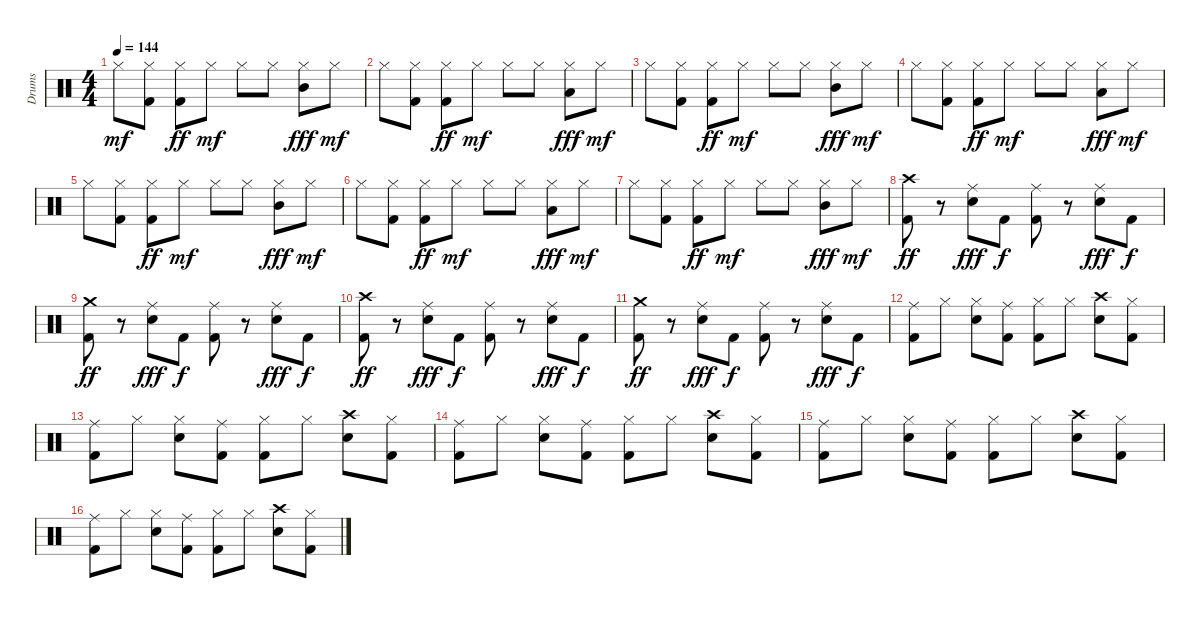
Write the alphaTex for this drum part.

\track ("Drums" "Drums") {instrument percussion}
\staff {score}
\articulation defaults
\ts (4 4)
\tempo 144
\clef neutral
\ks c "Hi-Hat (closed)".8{dy mf}
("Hi-Hat (closed)" "Kick (hit) 2").8 ("Hi-Hat (closed)" "Kick (hit) 2").8{dy ff} "Hi-Hat (closed)".8{dy mf} "Hi-Hat (closed)".8 "Hi-Hat (closed)".8 ("Hi-Hat (closed)" "Mid Tom (hit)").8{dy fff} "Hi-Hat (closed)".8{dy mf} |
"Hi-Hat (closed)".8 ("Hi-Hat (closed)" "Kick (hit) 2").8 ("Hi-Hat (closed)" "Kick (hit) 2").8{dy ff} "Hi-Hat (closed)".8{dy mf} "Hi-Hat (closed)".8 "Hi-Hat (closed)".8 ("Hi-Hat (closed)" "Low Tom (hit)").8{dy fff} "Hi-Hat (closed)".8{dy mf} |
"Hi-Hat (closed)".8 ("Hi-Hat (closed)" "Kick (hit) 2").8 ("Hi-Hat (closed)" "Kick (hit) 2").8{dy ff} "Hi-Hat (closed)".8{dy mf} "Hi-Hat (closed)".8 "Hi-Hat (closed)".8 ("Hi-Hat (closed)" "Mid Tom (hit)").8{dy fff} "Hi-Hat (closed)".8{dy mf} |
"Hi-Hat (closed)".8 ("Hi-Hat (closed)" "Kick (hit) 2").8 ("Hi-Hat (closed)" "Kick (hit) 2").8{dy ff} "Hi-Hat (closed)".8{dy mf} "Hi-Hat (closed)".8 "Hi-Hat (closed)".8 ("Hi-Hat (closed)" "Low Tom (hit)").8{dy fff} "Hi-Hat (closed)".8{dy mf} |
"Hi-Hat (closed)".8 ("Hi-Hat (closed)" "Kick (hit) 2").8 ("Hi-Hat (closed)" "Kick (hit) 2").8{dy ff} "Hi-Hat (closed)".8{dy mf} "Hi-Hat (closed)".8 "Hi-Hat (closed)".8 ("Hi-Hat (closed)" "Mid Tom (hit)").8{dy fff} "Hi-Hat (closed)".8{dy mf} |
"Hi-Hat (closed)".8 ("Hi-Hat (closed)" "Kick (hit) 2").8 ("Hi-Hat (closed)" "Kick (hit) 2").8{dy ff} "Hi-Hat (closed)".8{dy mf} "Hi-Hat (closed)".8 "Hi-Hat (closed)".8 ("Hi-Hat (closed)" "Low Tom (hit)").8{dy fff} "Hi-Hat (closed)".8{dy mf} |
"Hi-Hat (closed)".8 ("Hi-Hat (closed)" "Kick (hit) 2").8 ("Hi-Hat (closed)" "Kick (hit) 2").8{dy ff} "Hi-Hat (closed)".8{dy mf} "Hi-Hat (closed)".8 "Hi-Hat (closed)".8 ("Hi-Hat (closed)" "Mid Tom (hit)").8{dy fff} "Hi-Hat (closed)".8{dy mf} |
("Crash high (hit)" "Kick (hit) 2").8{dy ff} r.8 ("Ride (middle)" "Snare (hit) 2").8{dy fff} "Kick (hit) 2".8{dy f} ("Ride (middle)" "Kick (hit) 2").8 r.8 ("Ride (middle)" "Snare (hit) 2").8{dy fff} "Kick (hit) 2".8{dy f} |
("Crash medium (hit)" "Kick (hit) 2").8{dy ff} r.8 ("Ride (middle)" "Snare (hit) 2").8{dy fff} "Kick (hit) 2".8{dy f} ("Ride (middle)" "Kick (hit) 2").8 r.8 ("Ride (middle)" "Snare (hit) 2").8{dy fff} "Kick (hit) 2".8{dy f} |
("Crash high (hit)" "Kick (hit) 2").8{dy ff} r.8 ("Ride (middle)" "Snare (hit) 2").8{dy fff} "Kick (hit) 2".8{dy f} ("Ride (middle)" "Kick (hit) 2").8 r.8 ("Ride (middle)" "Snare (hit) 2").8{dy fff} "Kick (hit) 2".8{dy f} |
("Crash medium (hit)" "Kick (hit) 2").8{dy ff} r.8 ("Ride (middle)" "Snare (hit) 2").8{dy fff} "Kick (hit) 2".8{dy f} ("Ride (middle)" "Kick (hit) 2").8 r.8 ("Ride (middle)" "Snare (hit) 2").8{dy fff} "Kick (hit) 2".8{dy f} |
("Ride (middle)" "Kick (hit) 2").8 "Hi-Hat (closed)".8 ("Hi-Hat (closed)" "Snare (hit) 2").8 ("Ride (middle)" "Kick (hit) 2").8 ("Hi-Hat (closed)" "Kick (hit) 2").8 "Hi-Hat (closed)".8 ("Crash high (hit)" "Snare (hit) 2").8 ("Hi-Hat (closed)" "Kick (hit) 2").8 |
("Ride (middle)" "Kick (hit) 2").8 "Hi-Hat (closed)".8 ("Hi-Hat (closed)" "Snare (hit) 2").8 ("Ride (middle)" "Kick (hit) 2").8 ("Hi-Hat (closed)" "Kick (hit) 2").8 "Hi-Hat (closed)".8 ("Crash high (hit)" "Snare (hit) 2").8 ("Hi-Hat (closed)" "Kick (hit) 2").8 |
("Ride (middle)" "Kick (hit) 2").8 "Hi-Hat (closed)".8 ("Hi-Hat (closed)" "Snare (hit) 2").8 ("Ride (middle)" "Kick (hit) 2").8 ("Hi-Hat (closed)" "Kick (hit) 2").8 "Hi-Hat (closed)".8 ("Crash high (hit)" "Snare (hit) 2").8 ("Hi-Hat (closed)" "Kick (hit) 2").8 |
("Ride (middle)" "Kick (hit) 2").8 "Hi-Hat (closed)".8 ("Hi-Hat (closed)" "Snare (hit) 2").8 ("Ride (middle)" "Kick (hit) 2").8 ("Hi-Hat (closed)" "Kick (hit) 2").8 "Hi-Hat (closed)".8 ("Crash high (hit)" "Snare (hit) 2").8 ("Hi-Hat (closed)" "Kick (hit) 2").8 |
("Ride (middle)" "Kick (hit) 2").8 "Hi-Hat (closed)".8 ("Hi-Hat (closed)" "Snare (hit) 2").8 ("Ride (middle)" "Kick (hit) 2").8 ("Hi-Hat (closed)" "Kick (hit) 2").8 "Hi-Hat (closed)".8 ("Crash high (hit)" "Snare (hit) 2").8 ("Hi-Hat (closed)" "Kick (hit) 2").8
